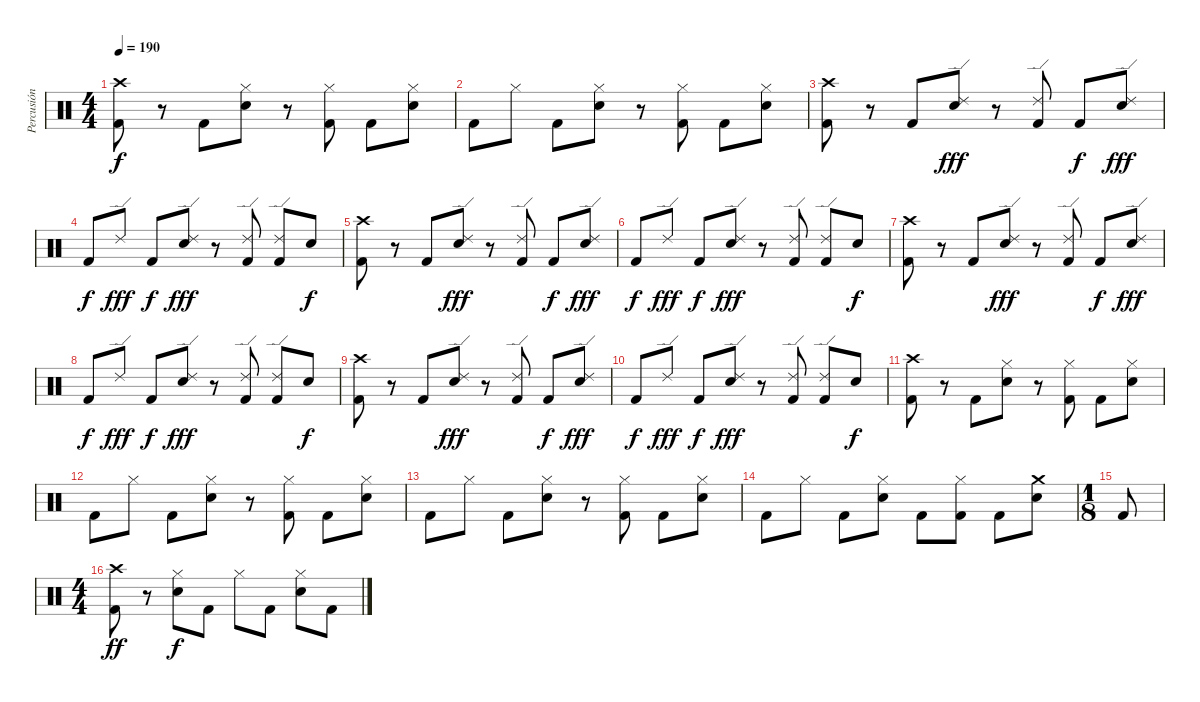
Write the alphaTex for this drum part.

\track ("Percusión" "Percusión") {instrument percussion}
\staff {score}
\articulation defaults
\ts (4 4)
\tempo 190
\clef neutral
\ks c
("Crash high (hit)" "Kick (hit) 2").8{dy f} r.8 "Kick (hit) 2".8 ("Hi-Hat (closed)" "Snare (hit) 2").8 r.8 ("Hi-Hat (closed)" "Kick (hit) 2").8 "Kick (hit) 2".8 ("Hi-Hat (closed)" "Snare (hit) 2").8 |
"Kick (hit) 2".8 "Hi-Hat (closed)".8 "Kick (hit) 2".8 ("Hi-Hat (closed)" "Snare (hit) 2").8 r.8 ("Hi-Hat (closed)" "Kick (hit) 2").8 "Kick (hit) 2".8 ("Hi-Hat (closed)" "Snare (hit) 2").8 |
("Crash high (hit)" "Kick (hit) 2").8 r.8 "Kick (hit) 2".8 ("Ride (edge) 2" "Snare (hit) 2").8{dy fff} r.8 ("Ride (edge) 2" "Kick (hit) 2").8 "Kick (hit) 2".8{dy f} ("Ride (edge) 2" "Snare (hit) 2").8{dy fff} |
"Kick (hit) 2".8{dy f} "Ride (edge) 2".8{dy fff} "Kick (hit) 2".8{dy f} ("Ride (edge) 2" "Snare (hit) 2").8{dy fff} r.8 ("Ride (edge) 2" "Kick (hit) 2").8 ("Ride (edge) 2" "Kick (hit) 2").8 "Snare (hit) 2".8{dy f} |
("Crash high (hit)" "Kick (hit) 2").8 r.8 "Kick (hit) 2".8 ("Ride (edge) 2" "Snare (hit) 2").8{dy fff} r.8 ("Ride (edge) 2" "Kick (hit) 2").8 "Kick (hit) 2".8{dy f} ("Ride (edge) 2" "Snare (hit) 2").8{dy fff} |
"Kick (hit) 2".8{dy f} "Ride (edge) 2".8{dy fff} "Kick (hit) 2".8{dy f} ("Ride (edge) 2" "Snare (hit) 2").8{dy fff} r.8 ("Ride (edge) 2" "Kick (hit) 2").8 ("Ride (edge) 2" "Kick (hit) 2").8 "Snare (hit) 2".8{dy f} |
("Crash high (hit)" "Kick (hit) 2").8 r.8 "Kick (hit) 2".8 ("Ride (edge) 2" "Snare (hit) 2").8{dy fff} r.8 ("Ride (edge) 2" "Kick (hit) 2").8 "Kick (hit) 2".8{dy f} ("Ride (edge) 2" "Snare (hit) 2").8{dy fff} |
"Kick (hit) 2".8{dy f} "Ride (edge) 2".8{dy fff} "Kick (hit) 2".8{dy f} ("Ride (edge) 2" "Snare (hit) 2").8{dy fff} r.8 ("Ride (edge) 2" "Kick (hit) 2").8 ("Ride (edge) 2" "Kick (hit) 2").8 "Snare (hit) 2".8{dy f} |
("Crash high (hit)" "Kick (hit) 2").8 r.8 "Kick (hit) 2".8 ("Ride (edge) 2" "Snare (hit) 2").8{dy fff} r.8 ("Ride (edge) 2" "Kick (hit) 2").8 "Kick (hit) 2".8{dy f} ("Ride (edge) 2" "Snare (hit) 2").8{dy fff} |
"Kick (hit) 2".8{dy f} "Ride (edge) 2".8{dy fff} "Kick (hit) 2".8{dy f} ("Ride (edge) 2" "Snare (hit) 2").8{dy fff} r.8 ("Ride (edge) 2" "Kick (hit) 2").8 ("Ride (edge) 2" "Kick (hit) 2").8 "Snare (hit) 2".8{dy f} |
("Crash high (hit)" "Kick (hit) 2").8 r.8 "Kick (hit) 2".8 ("Hi-Hat (closed)" "Snare (hit) 2").8 r.8 ("Hi-Hat (closed)" "Kick (hit) 2").8 "Kick (hit) 2".8 ("Hi-Hat (closed)" "Snare (hit) 2").8 |
"Kick (hit) 2".8 "Hi-Hat (closed)".8 "Kick (hit) 2".8 ("Hi-Hat (closed)" "Snare (hit) 2").8 r.8 ("Hi-Hat (closed)" "Kick (hit) 2").8 "Kick (hit) 2".8 ("Hi-Hat (closed)" "Snare (hit) 2").8 |
"Kick (hit) 2".8 "Hi-Hat (closed)".8 "Kick (hit) 2".8 ("Hi-Hat (closed)" "Snare (hit) 2").8 r.8 ("Hi-Hat (closed)" "Kick (hit) 2").8 "Kick (hit) 2".8 ("Hi-Hat (closed)" "Snare (hit) 2").8 |
"Kick (hit) 2".8 "Hi-Hat (closed)".8 "Kick (hit) 2".8 ("Hi-Hat (closed)" "Snare (hit) 2").8 "Kick (hit) 2".8 ("Hi-Hat (closed)" "Kick (hit) 2").8 "Kick (hit) 2".8 ("Crash medium (hit)" "Snare (hit) 2").8 |
\ts (1 8)
"Kick (hit) 2".8 |
\ts (4 4)
("Crash high (hit)" "Kick (hit) 2").8{dy ff} r.8 ("Hi-Hat (closed)" "Snare (hit) 2").8{dy f} "Kick (hit) 2".8 "Hi-Hat (closed)".8 "Kick (hit) 2".8 ("Hi-Hat (closed)" "Snare (hit) 2").8 "Kick (hit) 2".8
